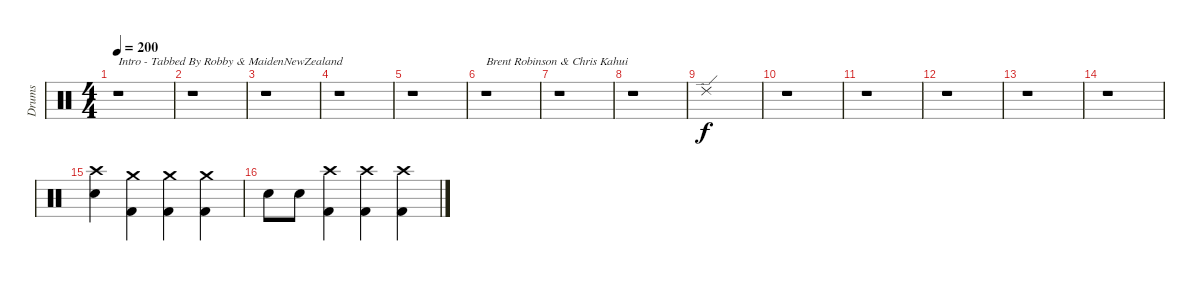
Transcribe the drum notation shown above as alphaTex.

\track ("Drums" "Drums") {instrument percussion}
\staff {score}
\articulation defaults
\ts (4 4)
\tempo 200
\clef neutral
\ks c
r.1{txt "Intro - Tabbed By Robby & MaidenNewZealand" dy f} |
r.1 |
r.1 |
r.1 |
r.1 |
r.1{txt "Brent Robinson & Chris Kahui"} |
r.1 |
r.1 |
"Ride (edge) 2".1 |
r.1 |
r.1 |
r.1 |
r.1 |
r.1 |
("Crash high (hit)" "Electric Snare (hit)").4 ("Crash medium (hit)" "Kick (hit) 2").4 ("Crash medium (hit)" "Kick (hit) 2").4 ("Crash medium (hit)" "Kick (hit) 2").4 |
"Electric Snare (hit)".8 "Electric Snare (hit)".8 ("Crash high (hit)" "Kick (hit) 2").4 ("Crash high (hit)" "Kick (hit) 2").4 ("Crash high (hit)" "Kick (hit) 2").4
